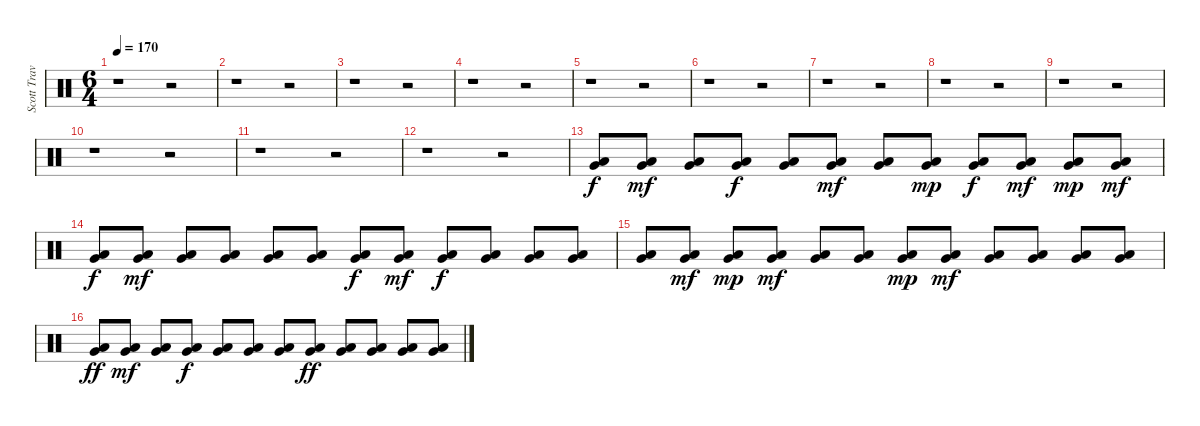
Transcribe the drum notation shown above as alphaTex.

\track ("Scott Travis" "Scott Trav") {instrument percussion}
\staff {score}
\articulation defaults
\ts (6 4)
\tempo 170
\clef neutral
\ks c
r.1{dy f} r.2 |
r.1 r.2 |
r.1 r.2 |
r.1 r.2 |
r.1 r.2 |
r.1 r.2 |
r.1 r.2 |
r.1 r.2 |
r.1 r.2 |
r.1 r.2 |
r.1 r.2 |
r.1 r.2 |
("Very Low Tom (hit)" "Low Floor Tom (hit)").8{volume 8} ("Low Floor Tom (hit)" "Very Low Tom (hit)").8{dy mf volume 8} ("Low Floor Tom (hit)" "Very Low Tom (hit)").8{volume 8} ("Very Low Tom (hit)" "Low Floor Tom (hit)").8{dy f volume 8} ("Very Low Tom (hit)" "Low Floor Tom (hit)").8{volume 8} ("Very Low Tom (hit)" "Low Floor Tom (hit)").8{dy mf volume 8} ("Very Low Tom (hit)" "Low Floor Tom (hit)").8{volume 8} ("Very Low Tom (hit)" "Low Floor Tom (hit)").8{dy mp volume 9} ("Very Low Tom (hit)" "Low Floor Tom (hit)").8{dy f volume 9} ("Low Floor Tom (hit)" "Very Low Tom (hit)").8{dy mf volume 9} ("Low Floor Tom (hit)" "Very Low Tom (hit)").8{dy mp volume 9} ("Low Floor Tom (hit)" "Very Low Tom (hit)").8{dy mf volume 9} |
("Low Floor Tom (hit)" "Very Low Tom (hit)").8{dy f volume 10} ("Low Floor Tom (hit)" "Very Low Tom (hit)").8{dy mf volume 10} ("Low Floor Tom (hit)" "Very Low Tom (hit)").8{volume 10} ("Very Low Tom (hit)" "Low Floor Tom (hit)").8{volume 10} ("Very Low Tom (hit)" "Low Floor Tom (hit)").8{volume 10} ("Low Floor Tom (hit)" "Very Low Tom (hit)").8{volume 10} ("Very Low Tom (hit)" "Low Floor Tom (hit)").8{dy f volume 11} ("Low Floor Tom (hit)" "Very Low Tom (hit)").8{dy mf volume 11} ("Low Floor Tom (hit)" "Very Low Tom (hit)").8{dy f volume 11} ("Low Floor Tom (hit)" "Very Low Tom (hit)").8{volume 11} ("Very Low Tom (hit)" "Low Floor Tom (hit)").8{volume 11} ("Low Floor Tom (hit)" "Very Low Tom (hit)").8{volume 12} |
("Very Low Tom (hit)" "Low Floor Tom (hit)").8{volume 12} ("Low Floor Tom (hit)" "Very Low Tom (hit)").8{dy mf volume 12} ("Very Low Tom (hit)" "Low Floor Tom (hit)").8{dy mp volume 12} ("Low Floor Tom (hit)" "Very Low Tom (hit)").8{dy mf volume 12} ("Very Low Tom (hit)" "Low Floor Tom (hit)").8{volume 12} ("Very Low Tom (hit)" "Low Floor Tom (hit)").8{volume 12} ("Very Low Tom (hit)" "Low Floor Tom (hit)").8{dy mp volume 13} ("Low Floor Tom (hit)" "Very Low Tom (hit)").8{dy mf volume 13} ("Low Floor Tom (hit)" "Very Low Tom (hit)").8{volume 13} ("Low Floor Tom (hit)" "Very Low Tom (hit)").8{volume 13} ("Low Floor Tom (hit)" "Very Low Tom (hit)").8{volume 13} ("Low Floor Tom (hit)" "Very Low Tom (hit)").8{volume 14} |
("Very Low Tom (hit)" "Low Floor Tom (hit)").8{dy ff volume 14} ("Low Floor Tom (hit)" "Very Low Tom (hit)").8{dy mf volume 14} ("Low Floor Tom (hit)" "Very Low Tom (hit)").8{volume 14} ("Very Low Tom (hit)" "Low Floor Tom (hit)").8{dy f volume 14} ("Low Floor Tom (hit)" "Very Low Tom (hit)").8{volume 14} ("Low Floor Tom (hit)" "Very Low Tom (hit)").8{volume 15} ("Very Low Tom (hit)" "Low Floor Tom (hit)").8{volume 15} ("Very Low Tom (hit)" "Low Floor Tom (hit)").8{dy ff volume 15} ("Low Floor Tom (hit)" "Very Low Tom (hit)").8{volume 15} ("Low Floor Tom (hit)" "Very Low Tom (hit)").8{volume 15} ("Low Floor Tom (hit)" "Very Low Tom (hit)").8{volume 16} ("Very Low Tom (hit)" "Low Floor Tom (hit)").8{volume 16}
